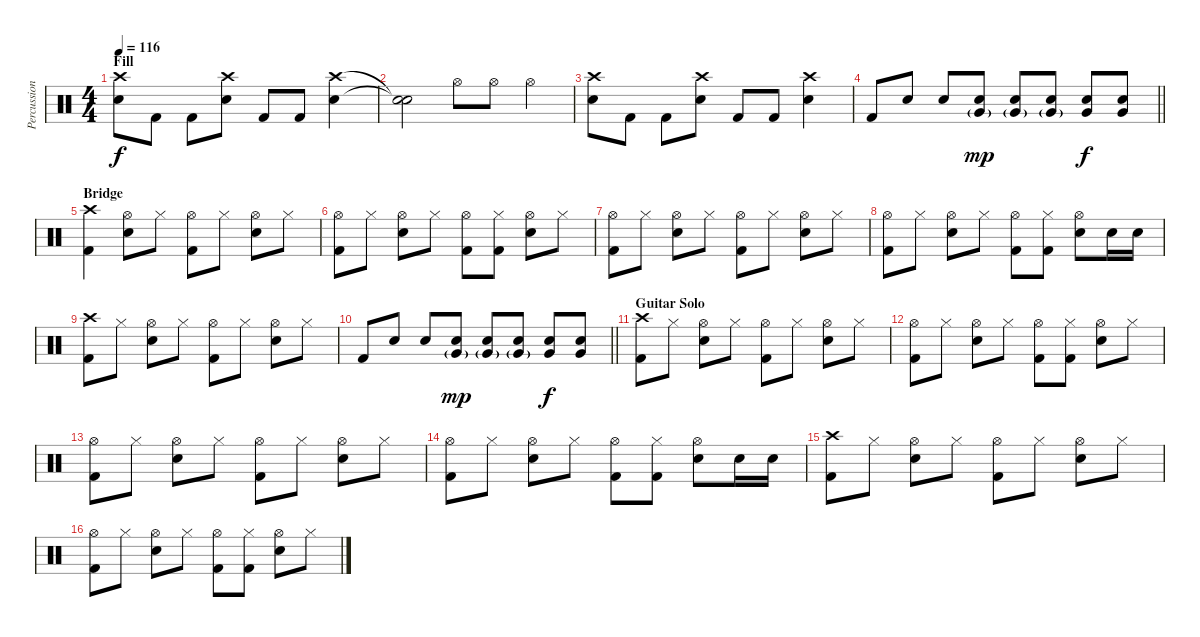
\track ("Percussion" "Percussion") {instrument percussion}
\staff {score}
\articulation defaults
\ts (4 4)
\section ("" "Fill")
\tempo 116
\clef neutral
\ks c
("Crash high (hit)" "Snare (hit) 2").8{dy f} "Kick (hit) 2".8 "Kick (hit) 2".8 ("Crash high (hit)" "Snare (hit) 2").8 "Kick (hit) 2".8 "Kick (hit) 2".8 ("Crash high (hit)" "Snare (hit) 2").4 |
("Snare (hit)"{t} "Snare (hit)"{t}).2 "Hi-Hat (open)".8 "Hi-Hat (open)".8 "Hi-Hat (open)".4 |
("Crash high (hit)" "Snare (hit) 2").8 "Kick (hit) 2".8 "Kick (hit) 2".8 ("Crash high (hit)" "Snare (hit) 2").8 "Kick (hit) 2".8 "Kick (hit) 2".8 ("Crash high (hit)" "Snare (hit) 2").4 |
\barLineRight lightlight "Kick (hit) 2".8 "Snare (hit) 2".8 "Snare (hit) 2".8
("Very Low Tom (hit)"{g} "Snare (hit) 2").8{dy mp} ("Very Low Tom (hit)"{g} "Snare (hit) 2").8 ("Very Low Tom (hit)"{g} "Snare (hit) 2").8 ("Very Low Tom (hit)" "Snare (hit) 2").8{dy f} ("Very Low Tom (hit)" "Snare (hit) 2").8 |
\section ("" "Bridge")
("Crash high (hit)" "Kick (hit) 2").4 ("Hi-Hat (open)" "Snare (hit) 2").8 "Hi-Hat (closed)".8 ("Hi-Hat (open)" "Kick (hit) 2").8 "Hi-Hat (closed)".8 ("Hi-Hat (open)" "Snare (hit) 2").8 "Hi-Hat (closed)".8 |
("Hi-Hat (open)" "Kick (hit) 2").8 "Hi-Hat (closed)".8 ("Hi-Hat (open)" "Snare (hit) 2").8 "Hi-Hat (closed)".8 ("Hi-Hat (open)" "Kick (hit) 2").8 ("Hi-Hat (closed)" "Kick (hit) 2").8 ("Hi-Hat (open)" "Snare (hit) 2").8 "Hi-Hat (closed)".8 |
("Hi-Hat (open)" "Kick (hit) 2").8 "Hi-Hat (closed)".8 ("Hi-Hat (open)" "Snare (hit) 2").8 "Hi-Hat (closed)".8 ("Hi-Hat (open)" "Kick (hit) 2").8 "Hi-Hat (closed)".8 ("Hi-Hat (open)" "Snare (hit) 2").8 "Hi-Hat (closed)".8 |
("Hi-Hat (open)" "Kick (hit) 2").8 "Hi-Hat (closed)".8 ("Hi-Hat (open)" "Snare (hit) 2").8 "Hi-Hat (closed)".8 ("Hi-Hat (open)" "Kick (hit) 2").8 ("Hi-Hat (closed)" "Kick (hit) 2").8 ("Hi-Hat (open)" "Snare (hit) 2").8 "Snare (hit) 2".16 "Snare (hit) 2".16 |
("Crash high (hit)" "Kick (hit) 2").8 "Hi-Hat (closed)".8 ("Hi-Hat (open)" "Snare (hit) 2").8 "Hi-Hat (closed)".8 ("Hi-Hat (open)" "Kick (hit) 2").8 "Hi-Hat (closed)".8 ("Hi-Hat (open)" "Snare (hit) 2").8 "Hi-Hat (closed)".8 |
\barLineRight lightlight "Kick (hit) 2".8 "Snare (hit) 2".8 "Snare (hit) 2".8
("Very Low Tom (hit)"{g} "Snare (hit) 2").8{dy mp} ("Very Low Tom (hit)"{g} "Snare (hit) 2").8 ("Very Low Tom (hit)"{g} "Snare (hit) 2").8 ("Very Low Tom (hit)" "Snare (hit) 2").8{dy f} ("Very Low Tom (hit)" "Snare (hit) 2").8 |
\section ("" "Guitar Solo")
("Crash high (hit)" "Kick (hit) 2").8 "Hi-Hat (closed)".8 ("Hi-Hat (open)" "Snare (hit) 2").8 "Hi-Hat (closed)".8 ("Hi-Hat (open)" "Kick (hit) 2").8 "Hi-Hat (closed)".8 ("Hi-Hat (open)" "Snare (hit) 2").8 "Hi-Hat (closed)".8 |
("Hi-Hat (open)" "Kick (hit) 2").8 "Hi-Hat (closed)".8 ("Hi-Hat (open)" "Snare (hit) 2").8 "Hi-Hat (closed)".8 ("Hi-Hat (open)" "Kick (hit) 2").8 ("Hi-Hat (closed)" "Kick (hit) 2").8 ("Hi-Hat (open)" "Snare (hit) 2").8 "Hi-Hat (closed)".8 |
("Hi-Hat (open)" "Kick (hit) 2").8 "Hi-Hat (closed)".8 ("Hi-Hat (open)" "Snare (hit) 2").8 "Hi-Hat (closed)".8 ("Hi-Hat (open)" "Kick (hit) 2").8 "Hi-Hat (closed)".8 ("Hi-Hat (open)" "Snare (hit) 2").8 "Hi-Hat (closed)".8 |
("Hi-Hat (open)" "Kick (hit) 2").8 "Hi-Hat (closed)".8 ("Hi-Hat (open)" "Snare (hit) 2").8 "Hi-Hat (closed)".8 ("Hi-Hat (open)" "Kick (hit) 2").8 ("Hi-Hat (closed)" "Kick (hit) 2").8 ("Hi-Hat (open)" "Snare (hit) 2").8 "Snare (hit) 2".16 "Snare (hit) 2".16 |
("Crash high (hit)" "Kick (hit) 2").8 "Hi-Hat (closed)".8 ("Hi-Hat (open)" "Snare (hit) 2").8 "Hi-Hat (closed)".8 ("Hi-Hat (open)" "Kick (hit) 2").8 "Hi-Hat (closed)".8 ("Hi-Hat (open)" "Snare (hit) 2").8 "Hi-Hat (closed)".8 |
("Hi-Hat (open)" "Kick (hit) 2").8 "Hi-Hat (closed)".8 ("Hi-Hat (open)" "Snare (hit) 2").8 "Hi-Hat (closed)".8 ("Hi-Hat (open)" "Kick (hit) 2").8 ("Hi-Hat (closed)" "Kick (hit) 2").8 ("Hi-Hat (open)" "Snare (hit) 2").8 "Hi-Hat (closed)".8
